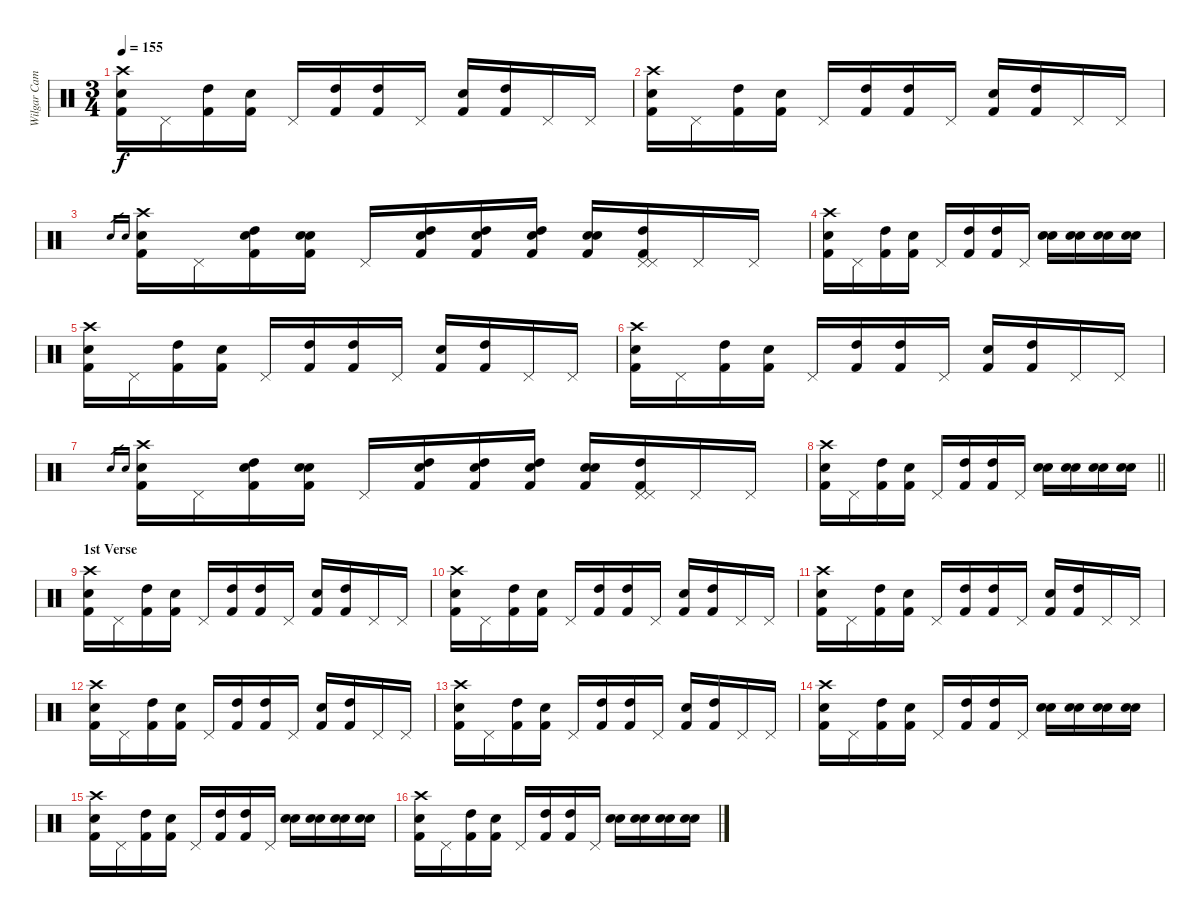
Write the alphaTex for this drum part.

\track ("Wilgar Campbell" "Wilgar Cam") {instrument percussion}
\staff {score}
\articulation defaults
\ts (3 4)
\tempo 155
\clef neutral
\ks c
("Kick (hit) 2" "Snare (hit) 2" "Crash high (hit)").16{dy f} "Pedal Hi-Hat (hit)".16 ("Kick (hit) 2" "High Tom (hit)").16 ("Kick (hit) 2" "Snare (hit) 2").16 "Pedal Hi-Hat (hit)".16 ("High Tom (hit)" "Kick (hit) 2").16 ("High Tom (hit)" "Kick (hit) 2").16 "Pedal Hi-Hat (hit)".16 ("Electric Snare (hit)" "Kick (hit) 2").16 ("High Tom (hit)" "Kick (hit) 2").16 "Pedal Hi-Hat (hit)".16 "Pedal Hi-Hat (hit)".16 |
("Kick (hit) 2" "Snare (hit) 2" "Crash high (hit)").16 "Pedal Hi-Hat (hit)".16 ("Kick (hit) 2" "High Tom (hit)").16 ("Kick (hit) 2" "Snare (hit) 2").16 "Pedal Hi-Hat (hit)".16 ("High Tom (hit)" "Kick (hit) 2").16 ("High Tom (hit)" "Kick (hit) 2").16 "Pedal Hi-Hat (hit)".16 ("Electric Snare (hit)" "Kick (hit) 2").16 ("High Tom (hit)" "Kick (hit) 2").16 "Pedal Hi-Hat (hit)".16 "Pedal Hi-Hat (hit)".16 |
"Electric Snare (hit)".16{gr} "Electric Snare (hit)".16{gr} ("Kick (hit) 2" "Snare (hit) 2" "Crash high (hit)").16 "Pedal Hi-Hat (hit)".16 ("Electric Snare (hit)" "Kick (hit) 2" "High Tom (hit)").16 ("Electric Snare (hit)" "Kick (hit) 2" "Snare (hit) 2").16 "Pedal Hi-Hat (hit)".16 ("Electric Snare (hit)" "High Tom (hit)" "Kick (hit) 2").16 ("Electric Snare (hit)" "High Tom (hit)" "Kick (hit) 2").16 ("Electric Snare (hit)" "High Tom (hit)" "Kick (hit) 2").16 ("Electric Snare (hit)" "Electric Snare (hit)" "Kick (hit) 2").16 ("Kick (hit) 2" "Pedal Hi-Hat (hit)" "High Tom (hit)" "Pedal Hi-Hat (hit)").16 "Pedal Hi-Hat (hit)".16 "Pedal Hi-Hat (hit)".16 |
("Kick (hit) 2" "Snare (hit) 2" "Crash high (hit)").16 "Pedal Hi-Hat (hit)".16 ("Kick (hit) 2" "High Tom (hit)").16 ("Kick (hit) 2" "Snare (hit) 2").16 "Pedal Hi-Hat (hit)".16 ("High Tom (hit)" "Kick (hit) 2").16 ("High Tom (hit)" "Kick (hit) 2").16 "Pedal Hi-Hat (hit)".16 ("Electric Snare (hit)" "Electric Snare (hit)").16 ("Electric Snare (hit)" "Electric Snare (hit)").16 ("Electric Snare (hit)" "Electric Snare (hit)").16 ("Electric Snare (hit)" "Electric Snare (hit)").16 |
("Kick (hit) 2" "Snare (hit) 2" "Crash high (hit)").16 "Pedal Hi-Hat (hit)".16 ("Kick (hit) 2" "High Tom (hit)").16 ("Kick (hit) 2" "Snare (hit) 2").16 "Pedal Hi-Hat (hit)".16 ("High Tom (hit)" "Kick (hit) 2").16 ("High Tom (hit)" "Kick (hit) 2").16 "Pedal Hi-Hat (hit)".16 ("Electric Snare (hit)" "Kick (hit) 2").16 ("High Tom (hit)" "Kick (hit) 2").16 "Pedal Hi-Hat (hit)".16 "Pedal Hi-Hat (hit)".16 |
("Kick (hit) 2" "Snare (hit) 2" "Crash high (hit)").16 "Pedal Hi-Hat (hit)".16 ("Kick (hit) 2" "High Tom (hit)").16 ("Kick (hit) 2" "Snare (hit) 2").16 "Pedal Hi-Hat (hit)".16 ("High Tom (hit)" "Kick (hit) 2").16 ("High Tom (hit)" "Kick (hit) 2").16 "Pedal Hi-Hat (hit)".16 ("Electric Snare (hit)" "Kick (hit) 2").16 ("High Tom (hit)" "Kick (hit) 2").16 "Pedal Hi-Hat (hit)".16 "Pedal Hi-Hat (hit)".16 |
"Electric Snare (hit)".16{gr} "Electric Snare (hit)".16{gr} ("Kick (hit) 2" "Snare (hit) 2" "Crash high (hit)").16 "Pedal Hi-Hat (hit)".16 ("Electric Snare (hit)" "Kick (hit) 2" "High Tom (hit)").16 ("Electric Snare (hit)" "Kick (hit) 2" "Snare (hit) 2").16 "Pedal Hi-Hat (hit)".16 ("Electric Snare (hit)" "High Tom (hit)" "Kick (hit) 2").16 ("Electric Snare (hit)" "High Tom (hit)" "Kick (hit) 2").16 ("Electric Snare (hit)" "High Tom (hit)" "Kick (hit) 2").16 ("Electric Snare (hit)" "Electric Snare (hit)" "Kick (hit) 2").16 ("Kick (hit) 2" "Pedal Hi-Hat (hit)" "High Tom (hit)" "Pedal Hi-Hat (hit)").16 "Pedal Hi-Hat (hit)".16 "Pedal Hi-Hat (hit)".16 |
\barLineRight lightlight
("Kick (hit) 2" "Snare (hit) 2" "Crash high (hit)").16 "Pedal Hi-Hat (hit)".16 ("Kick (hit) 2" "High Tom (hit)").16 ("Kick (hit) 2" "Snare (hit) 2").16 "Pedal Hi-Hat (hit)".16 ("High Tom (hit)" "Kick (hit) 2").16 ("High Tom (hit)" "Kick (hit) 2").16 "Pedal Hi-Hat (hit)".16 ("Electric Snare (hit)" "Electric Snare (hit)").16 ("Electric Snare (hit)" "Electric Snare (hit)").16 ("Electric Snare (hit)" "Electric Snare (hit)").16 ("Electric Snare (hit)" "Electric Snare (hit)").16 |
\section ("" "1st Verse")
("Kick (hit) 2" "Snare (hit) 2" "Crash high (hit)").16 "Pedal Hi-Hat (hit)".16 ("Kick (hit) 2" "High Tom (hit)").16 ("Kick (hit) 2" "Snare (hit) 2").16 "Pedal Hi-Hat (hit)".16 ("High Tom (hit)" "Kick (hit) 2").16 ("High Tom (hit)" "Kick (hit) 2").16 "Pedal Hi-Hat (hit)".16 ("Electric Snare (hit)" "Kick (hit) 2").16 ("High Tom (hit)" "Kick (hit) 2").16 "Pedal Hi-Hat (hit)".16 "Pedal Hi-Hat (hit)".16 |
("Kick (hit) 2" "Snare (hit) 2" "Crash high (hit)").16 "Pedal Hi-Hat (hit)".16 ("Kick (hit) 2" "High Tom (hit)").16 ("Kick (hit) 2" "Snare (hit) 2").16 "Pedal Hi-Hat (hit)".16 ("High Tom (hit)" "Kick (hit) 2").16 ("High Tom (hit)" "Kick (hit) 2").16 "Pedal Hi-Hat (hit)".16 ("Electric Snare (hit)" "Kick (hit) 2").16 ("High Tom (hit)" "Kick (hit) 2").16 "Pedal Hi-Hat (hit)".16 "Pedal Hi-Hat (hit)".16 |
("Kick (hit) 2" "Snare (hit) 2" "Crash high (hit)").16 "Pedal Hi-Hat (hit)".16 ("Kick (hit) 2" "High Tom (hit)").16 ("Kick (hit) 2" "Snare (hit) 2").16 "Pedal Hi-Hat (hit)".16 ("High Tom (hit)" "Kick (hit) 2").16 ("High Tom (hit)" "Kick (hit) 2").16 "Pedal Hi-Hat (hit)".16 ("Electric Snare (hit)" "Kick (hit) 2").16 ("High Tom (hit)" "Kick (hit) 2").16 "Pedal Hi-Hat (hit)".16 "Pedal Hi-Hat (hit)".16 |
("Kick (hit) 2" "Snare (hit) 2" "Crash high (hit)").16 "Pedal Hi-Hat (hit)".16 ("Kick (hit) 2" "High Tom (hit)").16 ("Kick (hit) 2" "Snare (hit) 2").16 "Pedal Hi-Hat (hit)".16 ("High Tom (hit)" "Kick (hit) 2").16 ("High Tom (hit)" "Kick (hit) 2").16 "Pedal Hi-Hat (hit)".16 ("Electric Snare (hit)" "Kick (hit) 2").16 ("High Tom (hit)" "Kick (hit) 2").16 "Pedal Hi-Hat (hit)".16 "Pedal Hi-Hat (hit)".16 |
("Kick (hit) 2" "Snare (hit) 2" "Crash high (hit)").16 "Pedal Hi-Hat (hit)".16 ("Kick (hit) 2" "High Tom (hit)").16 ("Kick (hit) 2" "Snare (hit) 2").16 "Pedal Hi-Hat (hit)".16 ("High Tom (hit)" "Kick (hit) 2").16 ("High Tom (hit)" "Kick (hit) 2").16 "Pedal Hi-Hat (hit)".16 ("Electric Snare (hit)" "Kick (hit) 2").16 ("High Tom (hit)" "Kick (hit) 2").16 "Pedal Hi-Hat (hit)".16 "Pedal Hi-Hat (hit)".16 |
("Kick (hit) 2" "Snare (hit) 2" "Crash high (hit)").16 "Pedal Hi-Hat (hit)".16 ("Kick (hit) 2" "High Tom (hit)").16 ("Kick (hit) 2" "Snare (hit) 2").16 "Pedal Hi-Hat (hit)".16 ("High Tom (hit)" "Kick (hit) 2").16 ("High Tom (hit)" "Kick (hit) 2").16 "Pedal Hi-Hat (hit)".16 ("Electric Snare (hit)" "Electric Snare (hit)").16 ("Electric Snare (hit)" "Electric Snare (hit)").16 ("Electric Snare (hit)" "Electric Snare (hit)").16 ("Electric Snare (hit)" "Electric Snare (hit)").16 |
("Kick (hit) 2" "Snare (hit) 2" "Crash high (hit)").16 "Pedal Hi-Hat (hit)".16 ("Kick (hit) 2" "High Tom (hit)").16 ("Kick (hit) 2" "Snare (hit) 2").16 "Pedal Hi-Hat (hit)".16 ("High Tom (hit)" "Kick (hit) 2").16 ("High Tom (hit)" "Kick (hit) 2").16 "Pedal Hi-Hat (hit)".16 ("Electric Snare (hit)" "Electric Snare (hit)").16 ("Electric Snare (hit)" "Electric Snare (hit)").16 ("Electric Snare (hit)" "Electric Snare (hit)").16 ("Electric Snare (hit)" "Electric Snare (hit)").16 |
("Kick (hit) 2" "Snare (hit) 2" "Crash high (hit)").16 "Pedal Hi-Hat (hit)".16 ("Kick (hit) 2" "High Tom (hit)").16 ("Kick (hit) 2" "Snare (hit) 2").16 "Pedal Hi-Hat (hit)".16 ("High Tom (hit)" "Kick (hit) 2").16 ("High Tom (hit)" "Kick (hit) 2").16 "Pedal Hi-Hat (hit)".16 ("Electric Snare (hit)" "Electric Snare (hit)").16 ("Electric Snare (hit)" "Electric Snare (hit)").16 ("Electric Snare (hit)" "Electric Snare (hit)").16 ("Electric Snare (hit)" "Electric Snare (hit)").16
